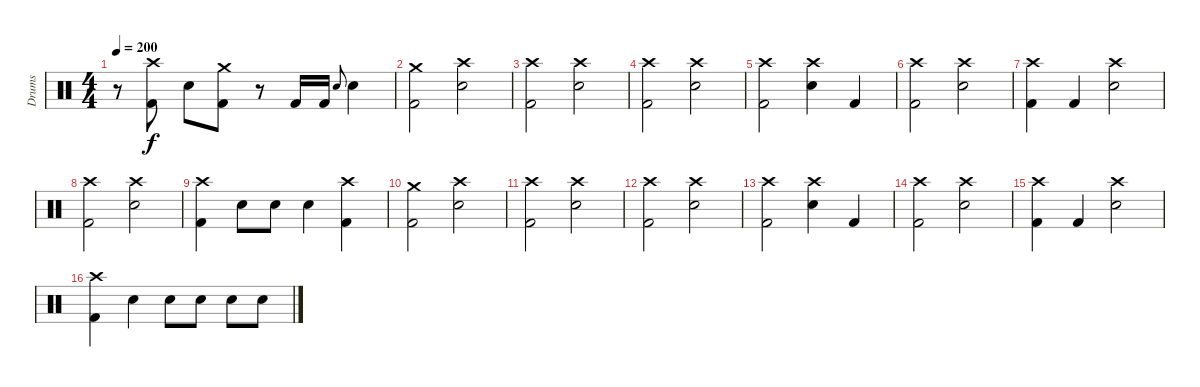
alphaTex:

\track ("Drums" "Drums") {instrument percussion}
\staff {score}
\articulation defaults
\ts (4 4)
\tempo 200
\clef neutral
\ks c
r.8{dy f} ("Kick (hit) 2" "Crash high (hit)").8 "Electric Snare (hit)".8 ("Kick (hit) 2" "Crash medium (hit)").8 r.8 "Kick (hit) 2".16 "Kick (hit) 2".16 "Electric Snare (hit)".8{gr onbeat} "Electric Snare (hit)".4 |
("Crash medium (hit)" "Kick (hit) 2").2 ("Crash high (hit)" "Electric Snare (hit)").2 |
("Kick (hit) 2" "Crash high (hit)").2 ("Crash high (hit)" "Electric Snare (hit)").2 |
("Kick (hit) 2" "Crash high (hit)").2 ("Crash high (hit)" "Electric Snare (hit)").2 |
("Kick (hit) 2" "Crash high (hit)").2 ("Crash high (hit)" "Electric Snare (hit)").4 "Kick (hit) 2".4 |
("Kick (hit) 2" "Crash high (hit)").2 ("Crash high (hit)" "Electric Snare (hit)").2 |
("Crash high (hit)" "Kick (hit) 2").4 "Kick (hit) 2".4 ("Crash high (hit)" "Electric Snare (hit)").2 |
("Kick (hit) 2" "Crash high (hit)").2 ("Crash high (hit)" "Electric Snare (hit)").2 |
("Crash high (hit)" "Kick (hit) 2").4 "Electric Snare (hit)".8 "Electric Snare (hit)".8 "Electric Snare (hit)".4 ("Kick (hit) 2" "Crash high (hit)").4 |
("Crash medium (hit)" "Kick (hit) 2").2 ("Crash high (hit)" "Electric Snare (hit)").2 |
("Kick (hit) 2" "Crash high (hit)").2 ("Crash high (hit)" "Electric Snare (hit)").2 |
("Kick (hit) 2" "Crash high (hit)").2 ("Crash high (hit)" "Electric Snare (hit)").2 |
("Kick (hit) 2" "Crash high (hit)").2 ("Crash high (hit)" "Electric Snare (hit)").4 "Kick (hit) 2".4 |
("Kick (hit) 2" "Crash high (hit)").2 ("Crash high (hit)" "Electric Snare (hit)").2 |
("Crash high (hit)" "Kick (hit) 2").4 "Kick (hit) 2".4 ("Crash high (hit)" "Electric Snare (hit)").2 |
("Kick (hit) 2" "Crash high (hit)").4 "Electric Snare (hit)".4 "Electric Snare (hit)".8 "Electric Snare (hit)".8 "Electric Snare (hit)".8 "Electric Snare (hit)".8
